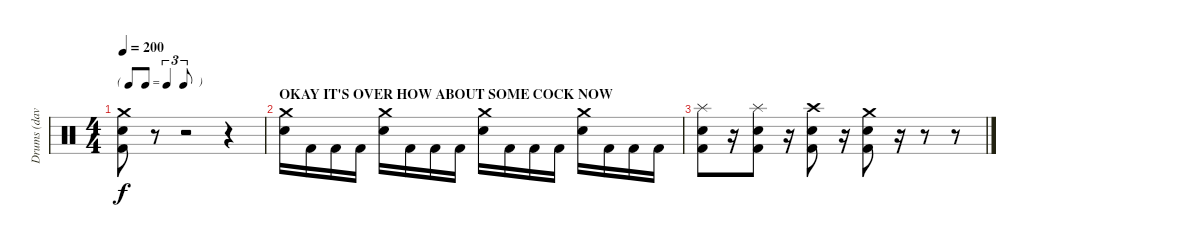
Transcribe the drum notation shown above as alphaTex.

\track ("Drums (dave)" "Drums (dav") {instrument percussion}
\staff {score}
\articulation defaults
\ts (4 4)
\tf triplet8th
\tempo 200
\clef neutral
\ks c
("Crash medium (hit)" "Snare (hit) 2" "Kick (hit) 2").8{dy f} r.8 r.2 r.4 |
\section ("" "OKAY IT'S OVER HOW ABOUT SOME COCK NOW")
("Crash medium (hit)" "Snare (hit) 2").16 "Kick (hit) 2".16 "Kick (hit) 2".16 "Kick (hit) 2".16 ("Crash medium (hit)" "Snare (hit) 2").16 "Kick (hit) 2".16 "Kick (hit) 2".16 "Kick (hit) 2".16 ("Crash medium (hit)" "Snare (hit) 2").16 "Kick (hit) 2".16 "Kick (hit) 2".16 "Kick (hit) 2".16 ("Crash medium (hit)" "Snare (hit) 2").16 "Kick (hit) 2".16 "Kick (hit) 2".16 "Kick (hit) 2".16 |
("Splash (hit)" "Snare (hit) 2" "Kick (hit) 2").8 r.16 ("Splash (hit)" "Snare (hit) 2" "Kick (hit) 2").8 r.16 ("Crash high (hit)" "Snare (hit) 2" "Kick (hit) 2").8 r.16 ("Crash medium (hit)" "Snare (hit) 2" "Kick (hit) 2").8 r.16 r.8 r.8
